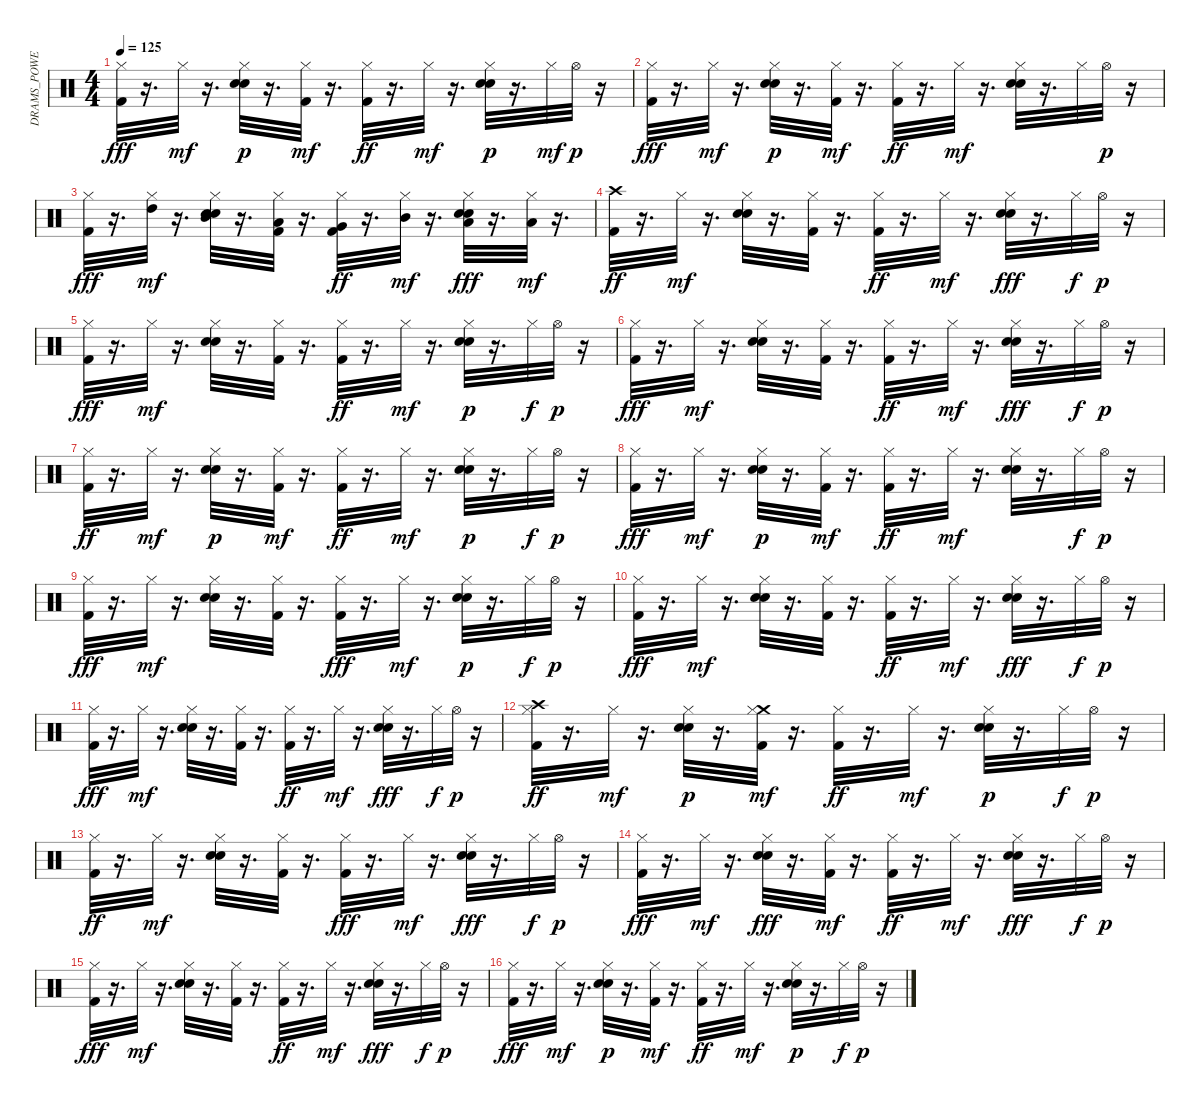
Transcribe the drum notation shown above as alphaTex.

\track ("DRAMS_POWER" "DRAMS_POWE") {instrument percussion}
\staff {score}
\articulation defaults
\ts (4 4)
\tempo 125
\clef neutral
\ks c
("Kick (hit) 2" "Hi-Hat (closed)").32{dy fff} r.16{d} "Hi-Hat (closed)".32{dy mf} r.16{d} ("Electric Snare (hit)" "Hi-Hat (closed)" "Snare (hit) 2").32{dy p} r.16{d} ("Kick (hit) 2" "Hi-Hat (closed)").32{dy mf} r.16{d} ("Hi-Hat (closed)" "Kick (hit) 2").32{dy ff} r.16{d} "Hi-Hat (closed)".32{dy mf} r.16{d} ("Hi-Hat (closed)" "Electric Snare (hit)" "Snare (hit) 2").32{dy p} r.16{d} "Hi-Hat (closed)".32{dy mf} "Hi-Hat (open)".32{dy p} r.16 |
("Kick (hit) 2" "Hi-Hat (closed)").32{dy fff} r.16{d} "Hi-Hat (closed)".32{dy mf} r.16{d} ("Hi-Hat (closed)" "Electric Snare (hit)" "Snare (hit) 2").32{dy p} r.16{d} ("Hi-Hat (closed)" "Kick (hit) 2").32{dy mf} r.16{d} ("Hi-Hat (closed)" "Kick (hit) 2").32{dy ff} r.16{d} "Hi-Hat (closed)".32{dy mf} r.16{d} ("Snare (hit) 2" "Electric Snare (hit)" "Hi-Hat (closed)").32 r.16{d} "Hi-Hat (closed)".32 "Hi-Hat (open)".32{dy p} r.16 |
("Kick (hit) 2" "Hi-Hat (closed)").32{dy fff} r.16{d} ("Hi-Hat (closed)" "High Tom (hit)").32{dy mf} r.16{d} ("Electric Snare (hit)" "Mid Tom (hit)" "Snare (hit) 2" "Hi-Hat (closed)").32 r.16{d} ("Hi-Hat (closed)" "Low Tom (hit)" "Kick (hit) 2").32 r.16{d} ("Hi-Hat (closed)" "Kick (hit) 2" "Very Low Tom (hit)").32{dy ff} r.16{d} ("Mid Tom (hit)" "Hi-Hat (closed)").32{dy mf} r.16{d} ("Low Tom (hit)" "Snare (hit) 2" "Hi-Hat (closed)" "Electric Snare (hit)").32{dy fff} r.16{d} ("Hi-Hat (closed)" "Low Floor Tom (hit)").32{dy mf} r.16{d} |
("Kick (hit) 2" "Crash high (hit)").32{dy ff} r.16{d} "Hi-Hat (closed)".32{dy mf} r.16{d} ("Snare (hit) 2" "Electric Snare (hit)" "Hi-Hat (closed)").32 r.16{d} ("Hi-Hat (closed)" "Kick (hit) 2").32 r.16{d} ("Hi-Hat (closed)" "Kick (hit) 2").32{dy ff} r.16{d} "Hi-Hat (closed)".32{dy mf} r.16{d} ("Hi-Hat (closed)" "Snare (hit) 2" "Electric Snare (hit)").32{dy fff} r.16{d} "Hi-Hat (closed)".32{dy f} "Hi-Hat (open)".32{dy p} r.16 |
("Kick (hit) 2" "Hi-Hat (closed)").32{dy fff} r.16{d} "Hi-Hat (closed)".32{dy mf} r.16{d} ("Electric Snare (hit)" "Snare (hit) 2" "Hi-Hat (closed)").32 r.16{d} ("Hi-Hat (closed)" "Kick (hit) 2").32 r.16{d} ("Hi-Hat (closed)" "Kick (hit) 2").32{dy ff} r.16{d} "Hi-Hat (closed)".32{dy mf} r.16{d} ("Hi-Hat (closed)" "Electric Snare (hit)" "Snare (hit) 2").32{dy p} r.16{d} "Hi-Hat (closed)".32{dy f} "Hi-Hat (open)".32{dy p} r.16 |
("Kick (hit) 2" "Hi-Hat (closed)").32{dy fff} r.16{d} "Hi-Hat (closed)".32{dy mf} r.16{d} ("Electric Snare (hit)" "Snare (hit) 2" "Hi-Hat (closed)").32 r.16{d} ("Kick (hit) 2" "Hi-Hat (closed)").32 r.16{d} ("Hi-Hat (closed)" "Kick (hit) 2").32{dy ff} r.16{d} "Hi-Hat (closed)".32{dy mf} r.16{d} ("Hi-Hat (closed)" "Snare (hit) 2" "Electric Snare (hit)").32{dy fff} r.16{d} "Hi-Hat (closed)".32{dy f} "Hi-Hat (open)".32{dy p} r.16 |
("Hi-Hat (closed)" "Kick (hit) 2").32{dy ff} r.16{d} "Hi-Hat (closed)".32{dy mf} r.16{d} ("Electric Snare (hit)" "Hi-Hat (closed)" "Snare (hit) 2").32{dy p} r.16{d} ("Hi-Hat (closed)" "Kick (hit) 2").32{dy mf} r.16{d} ("Hi-Hat (closed)" "Kick (hit) 2").32{dy ff} r.16{d} "Hi-Hat (closed)".32{dy mf} r.16{d} ("Hi-Hat (closed)" "Electric Snare (hit)" "Snare (hit) 2").32{dy p} r.16{d} "Hi-Hat (closed)".32{dy f} "Hi-Hat (open)".32{dy p} r.16 |
("Kick (hit) 2" "Hi-Hat (closed)").32{dy fff} r.16{d} "Hi-Hat (closed)".32{dy mf} r.16{d} ("Hi-Hat (closed)" "Electric Snare (hit)" "Snare (hit) 2").32{dy p} r.16{d} ("Kick (hit) 2" "Hi-Hat (closed)").32{dy mf} r.16{d} ("Hi-Hat (closed)" "Kick (hit) 2").32{dy ff} r.16{d} "Hi-Hat (closed)".32{dy mf} r.16{d} ("Electric Snare (hit)" "Snare (hit) 2" "Hi-Hat (closed)").32 r.16{d} "Hi-Hat (closed)".32{dy f} "Hi-Hat (open)".32{dy p} r.16 |
("Kick (hit) 2" "Hi-Hat (closed)").32{dy fff} r.16{d} "Hi-Hat (closed)".32{dy mf} r.16{d} ("Snare (hit) 2" "Electric Snare (hit)" "Hi-Hat (closed)").32 r.16{d} ("Kick (hit) 2" "Hi-Hat (closed)").32 r.16{d} ("Kick (hit) 2" "Hi-Hat (closed)").32{dy fff} r.16{d} "Hi-Hat (closed)".32{dy mf} r.16{d} ("Electric Snare (hit)" "Hi-Hat (closed)" "Snare (hit) 2").32{dy p} r.16{d} "Hi-Hat (closed)".32{dy f} "Hi-Hat (open)".32{dy p} r.16 |
("Kick (hit) 2" "Hi-Hat (closed)").32{dy fff} r.16{d} "Hi-Hat (closed)".32{dy mf} r.16{d} ("Electric Snare (hit)" "Snare (hit) 2" "Hi-Hat (closed)").32 r.16{d} ("Kick (hit) 2" "Hi-Hat (closed)").32 r.16{d} ("Hi-Hat (closed)" "Kick (hit) 2").32{dy ff} r.16{d} "Hi-Hat (closed)".32{dy mf} r.16{d} ("Hi-Hat (closed)" "Snare (hit) 2" "Electric Snare (hit)").32{dy fff} r.16{d} "Hi-Hat (closed)".32{dy f} "Hi-Hat (open)".32{dy p} r.16 |
("Kick (hit) 2" "Hi-Hat (closed)").32{dy fff} r.16{d} "Hi-Hat (closed)".32{dy mf} r.16{d} ("Electric Snare (hit)" "Snare (hit) 2" "Hi-Hat (closed)").32 r.16{d} ("Kick (hit) 2" "Hi-Hat (closed)").32 r.16{d} ("Hi-Hat (closed)" "Kick (hit) 2").32{dy ff} r.16{d} "Hi-Hat (closed)".32{dy mf} r.16{d} ("Snare (hit) 2" "Hi-Hat (closed)" "Electric Snare (hit)").32{dy fff} r.16{d} "Hi-Hat (closed)".32{dy f} "Hi-Hat (open)".32{dy p} r.16 |
("Crash high (hit)" "Hi-Hat (closed)" "Kick (hit) 2").32{dy ff} r.16{d} "Hi-Hat (closed)".32{dy mf} r.16{d} ("Electric Snare (hit)" "Hi-Hat (closed)" "Snare (hit) 2").32{dy p} r.16{d} ("Kick (hit) 2" "Crash medium (hit)" "Hi-Hat (closed)").32{dy mf} r.16{d} ("Hi-Hat (closed)" "Kick (hit) 2").32{dy ff} r.16{d} "Hi-Hat (closed)".32{dy mf} r.16{d} ("Hi-Hat (closed)" "Electric Snare (hit)" "Snare (hit) 2").32{dy p} r.16{d} "Hi-Hat (closed)".32{dy f} "Hi-Hat (open)".32{dy p} r.16 |
("Hi-Hat (closed)" "Kick (hit) 2").32{dy ff} r.16{d} "Hi-Hat (closed)".32{dy mf} r.16{d} ("Electric Snare (hit)" "Snare (hit) 2" "Hi-Hat (closed)").32 r.16{d} ("Kick (hit) 2" "Hi-Hat (closed)").32 r.16{d} ("Kick (hit) 2" "Hi-Hat (closed)").32{dy fff} r.16{d} "Hi-Hat (closed)".32{dy mf} r.16{d} ("Hi-Hat (closed)" "Snare (hit) 2" "Electric Snare (hit)").32{dy fff} r.16{d} "Hi-Hat (closed)".32{dy f} "Hi-Hat (open)".32{dy p} r.16 |
("Kick (hit) 2" "Hi-Hat (closed)").32{dy fff} r.16{d} "Hi-Hat (closed)".32{dy mf} r.16{d} ("Snare (hit) 2" "Hi-Hat (closed)" "Electric Snare (hit)").32{dy fff} r.16{d} ("Kick (hit) 2" "Hi-Hat (closed)").32{dy mf} r.16{d} ("Hi-Hat (closed)" "Kick (hit) 2").32{dy ff} r.16{d} "Hi-Hat (closed)".32{dy mf} r.16{d} ("Hi-Hat (closed)" "Snare (hit) 2" "Electric Snare (hit)").32{dy fff} r.16{d} "Hi-Hat (closed)".32{dy f} "Hi-Hat (open)".32{dy p} r.16 |
("Kick (hit) 2" "Hi-Hat (closed)").32{dy fff} r.16{d} "Hi-Hat (closed)".32{dy mf} r.16{d} ("Electric Snare (hit)" "Snare (hit) 2" "Hi-Hat (closed)").32 r.16{d} ("Kick (hit) 2" "Hi-Hat (closed)").32 r.16{d} ("Hi-Hat (closed)" "Kick (hit) 2").32{dy ff} r.16{d} "Hi-Hat (closed)".32{dy mf} r.16{d} ("Snare (hit) 2" "Hi-Hat (closed)" "Electric Snare (hit)").32{dy fff} r.16{d} "Hi-Hat (closed)".32{dy f} "Hi-Hat (open)".32{dy p} r.16 |
("Kick (hit) 2" "Hi-Hat (closed)").32{dy fff} r.16{d} "Hi-Hat (closed)".32{dy mf} r.16{d} ("Electric Snare (hit)" "Hi-Hat (closed)" "Snare (hit) 2").32{dy p} r.16{d} ("Hi-Hat (closed)" "Kick (hit) 2").32{dy mf} r.16{d} ("Hi-Hat (closed)" "Kick (hit) 2").32{dy ff} r.16{d} "Hi-Hat (closed)".32{dy mf} r.16{d} ("Electric Snare (hit)" "Hi-Hat (closed)" "Snare (hit) 2").32{dy p} r.16{d} "Hi-Hat (closed)".32{dy f} "Hi-Hat (open)".32{dy p} r.16
